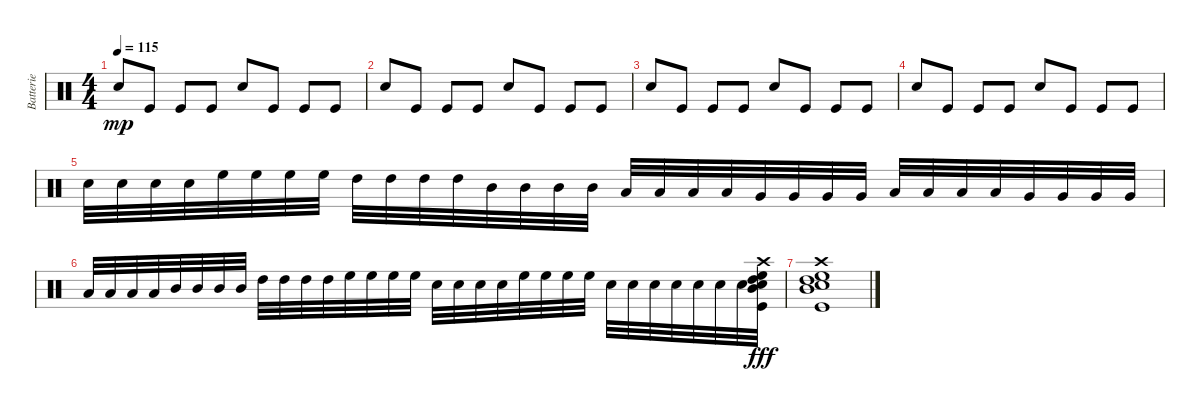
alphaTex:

\track ("Batterie" "Batterie") {instrument percussion}
\staff {score}
\articulation defaults
\ts (4 4)
\tempo 115
\clef neutral
\ks c "Snare (hit) 2".8{dy mp} "Kick (hit)".8 "Kick (hit)".8 "Kick (hit)".8 "Snare (hit) 2".8 "Kick (hit)".8 "Kick (hit)".8 "Kick (hit)".8
|
"Snare (hit) 2".8 "Kick (hit)".8 "Kick (hit)".8 "Kick (hit)".8 "Snare (hit) 2".8 "Kick (hit)".8 "Kick (hit)".8 "Kick (hit)".8 |
"Snare (hit) 2".8 "Kick (hit)".8 "Kick (hit)".8 "Kick (hit)".8 "Snare (hit) 2".8 "Kick (hit)".8 "Kick (hit)".8 "Kick (hit)".8 |
"Snare (hit) 2".8 "Kick (hit)".8 "Kick (hit)".8 "Kick (hit)".8 "Snare (hit) 2".8 "Kick (hit)".8 "Kick (hit)".8 "Kick (hit)".8 |
"Snare (hit) 2".32 "Snare (hit) 2".32 "Snare (hit) 2".32 "Snare (hit) 2".32 "High Floor Tom (hit)".32 "High Floor Tom (hit)".32 "High Floor Tom (hit)".32 "High Floor Tom (hit)".32 "High Tom (hit)".32 "High Tom (hit)".32 "High Tom (hit)".32 "High Tom (hit)".32 "Mid Tom (hit)".32 "Mid Tom (hit)".32 "Mid Tom (hit)".32 "Mid Tom (hit)".32 "Low Tom (hit)".32 "Low Tom (hit)".32 "Low Tom (hit)".32 "Low Tom (hit)".32 "Very Low Tom (hit)".32 "Very Low Tom (hit)".32 "Very Low Tom (hit)".32 "Very Low Tom (hit)".32 "Low Floor Tom (hit)".32 "Low Floor Tom (hit)".32 "Low Floor Tom (hit)".32 "Low Floor Tom (hit)".32 "Very Low Tom (hit)".32 "Very Low Tom (hit)".32 "Very Low Tom (hit)".32 "Very Low Tom (hit)".32 |
"Low Tom (hit)".32 "Low Tom (hit)".32 "Low Tom (hit)".32 "Low Tom (hit)".32 "Mid Tom (hit)".32 "Mid Tom (hit)".32 "Mid Tom (hit)".32 "Mid Tom (hit)".32 "High Tom (hit)".32 "High Tom (hit)".32 "High Tom (hit)".32 "High Tom (hit)".32 "High Floor Tom (hit)".32 "High Floor Tom (hit)".32 "High Floor Tom (hit)".32 "High Floor Tom (hit)".32 "Snare (hit) 2".32 "Snare (hit) 2".32 "Snare (hit) 2".32 "Snare (hit) 2".32 "High Floor Tom (hit)".32 "High Floor Tom (hit)".32 "High Floor Tom (hit)".32 "High Floor Tom (hit)".32 "Snare (hit) 2".32 "Snare (hit) 2".32 "Snare (hit) 2".32 "Snare (hit) 2".32 "Snare (hit) 2".32 "Snare (hit) 2".32 "Snare (hit) 2".32 ("Crash high (hit)" "Kick (hit)" "Snare (hit) 2" "High Floor Tom (hit)" "High Tom (hit)" "Mid Tom (hit)").32{dy fff} |
("Crash high (hit)" "Kick (hit)" "Snare (hit) 2" "High Floor Tom (hit)" "High Tom (hit)" "Mid Tom (hit)").1
